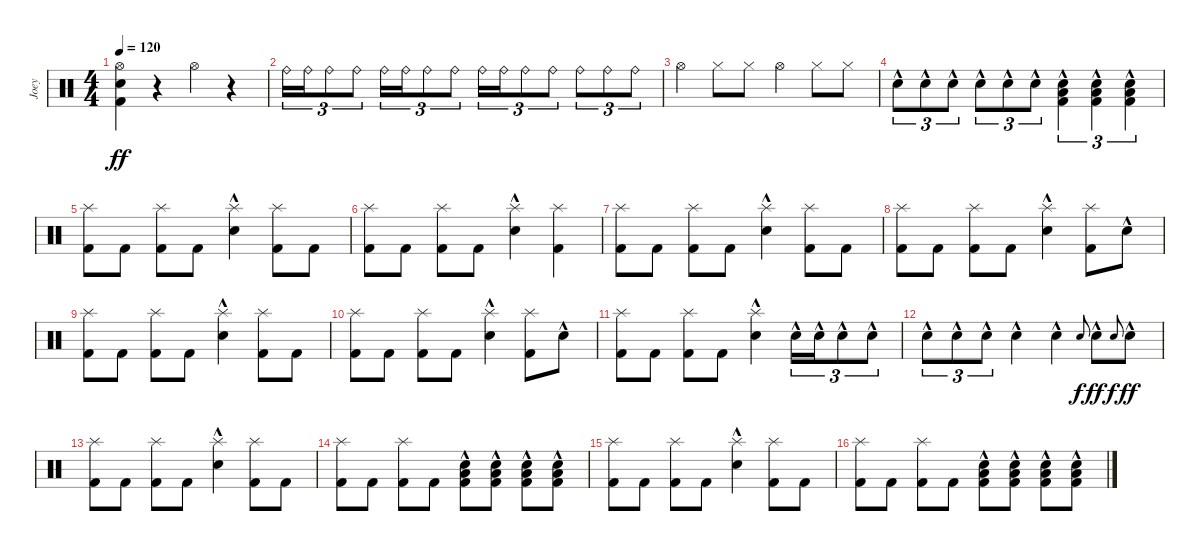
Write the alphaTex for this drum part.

\track ("Joey" "Joey") {instrument percussion}
\staff {score}
\articulation defaults
\ts (4 4)
\tempo 120
\clef neutral
\ks c
("Hi-Hat (open)" "Snare (hit) 2" "Kick (hit) 2").4{dy ff} r.4 "Hi-Hat (open)".4 r.4 |
"Ride (bell)".16{tu (3 2)} "Ride (bell)".16{tu (3 2)} "Ride (bell)".8{tu (3 2)} "Ride (bell)".8{tu (3 2)} "Ride (bell)".16{tu (3 2)} "Ride (bell)".16{tu (3 2)} "Ride (bell)".8{tu (3 2)} "Ride (bell)".8{tu (3 2)} "Ride (bell)".16{tu (3 2)} "Ride (bell)".16{tu (3 2)} "Ride (bell)".8{tu (3 2)} "Ride (bell)".8{tu (3 2)} "Ride (bell)".8{tu (3 2)} "Ride (bell)".8{tu (3 2)} "Ride (bell)".8{tu (3 2)} |
"Hi-Hat (open)".4 "Hi-Hat (closed)".8 "Hi-Hat (closed)".8 "Hi-Hat (open)".4 "Hi-Hat (closed)".8 "Hi-Hat (closed)".8 |
"Snare (hit) 2"{hac}.8{tu (3 2)} "Snare (hit) 2"{hac}.8{tu (3 2)} "Snare (hit) 2"{hac}.8{tu (3 2)} "Snare (hit) 2"{hac}.8{tu (3 2)} "Snare (hit) 2"{hac}.8{tu (3 2)} "Snare (hit) 2"{hac}.8{tu (3 2)} ("Low Floor Tom (hit)"{hac} "Snare (hit) 2"{hac} "Kick (hit) 2").4{tu (3 2)} ("Low Floor Tom (hit)"{hac} "Snare (hit) 2"{hac} "Kick (hit) 2").4{tu (3 2)} ("Low Floor Tom (hit)"{hac} "Snare (hit) 2"{hac} "Kick (hit) 2").4{tu (3 2)} |
("Splash (hit)" "Kick (hit) 2").8 "Kick (hit) 2".8 ("Splash (hit)" "Kick (hit) 2").8 "Kick (hit) 2".8 ("Splash (hit)" "Snare (hit) 2"{hac}).4 ("Splash (hit)" "Kick (hit) 2").8 "Kick (hit) 2".8 |
("Splash (hit)" "Kick (hit) 2").8 "Kick (hit) 2".8 ("Splash (hit)" "Kick (hit) 2").8 "Kick (hit) 2".8 ("Splash (hit)" "Snare (hit) 2"{hac}).4 ("Splash (hit)" "Kick (hit) 2").4 |
("Splash (hit)" "Kick (hit) 2").8 "Kick (hit) 2".8 ("Splash (hit)" "Kick (hit) 2").8 "Kick (hit) 2".8 ("Splash (hit)" "Snare (hit) 2"{hac}).4 ("Splash (hit)" "Kick (hit) 2").8 "Kick (hit) 2".8 |
("Splash (hit)" "Kick (hit) 2").8 "Kick (hit) 2".8 ("Splash (hit)" "Kick (hit) 2").8 "Kick (hit) 2".8 ("Splash (hit)" "Snare (hit) 2"{hac}).4 ("Splash (hit)" "Kick (hit) 2").8 "Snare (hit) 2"{hac}.8 |
("Splash (hit)" "Kick (hit) 2").8 "Kick (hit) 2".8 ("Splash (hit)" "Kick (hit) 2").8 "Kick (hit) 2".8 ("Splash (hit)" "Snare (hit) 2"{hac}).4 ("Splash (hit)" "Kick (hit) 2").8 "Kick (hit) 2".8 |
("Splash (hit)" "Kick (hit) 2").8 "Kick (hit) 2".8 ("Splash (hit)" "Kick (hit) 2").8 "Kick (hit) 2".8 ("Splash (hit)" "Snare (hit) 2"{hac}).4 ("Splash (hit)" "Kick (hit) 2").8 "Snare (hit) 2"{hac}.8 |
("Splash (hit)" "Kick (hit) 2").8 "Kick (hit) 2".8 ("Splash (hit)" "Kick (hit) 2").8 "Kick (hit) 2".8 ("Splash (hit)" "Snare (hit) 2"{hac}).4 "Snare (hit) 2"{hac}.16{tu (3 2)} "Snare (hit) 2"{hac}.16{tu (3 2)} "Snare (hit) 2"{hac}.8{tu (3 2)} "Snare (hit) 2"{hac}.8{tu (3 2)} |
"Snare (hit) 2"{hac}.8{tu (3 2)} "Snare (hit) 2"{hac}.8{tu (3 2)} "Snare (hit) 2"{hac}.8{tu (3 2)} "Snare (hit) 2"{hac}.4 "Snare (hit) 2"{hac}.4 "Snare (hit) 2".8{gr onbeat dy f} "Snare (hit) 2"{hac}.8{dy ff} "Snare (hit) 2".8{gr onbeat dy f} "Snare (hit) 2"{hac}.8{dy ff} |
("Splash (hit)" "Kick (hit) 2").8 "Kick (hit) 2".8 ("Splash (hit)" "Kick (hit) 2").8 "Kick (hit) 2".8 ("Splash (hit)" "Snare (hit) 2"{hac}).4 ("Splash (hit)" "Kick (hit) 2").8 "Kick (hit) 2".8 |
("Splash (hit)" "Kick (hit) 2").8 "Kick (hit) 2".8 ("Splash (hit)" "Kick (hit) 2").8 "Kick (hit) 2".8 ("Low Floor Tom (hit)"{hac} "Snare (hit) 2"{hac} "Kick (hit) 2").8 ("Low Floor Tom (hit)"{hac} "Snare (hit) 2"{hac} "Kick (hit) 2").8 ("Low Floor Tom (hit)"{hac} "Snare (hit) 2"{hac} "Kick (hit) 2").8 ("Low Floor Tom (hit)"{hac} "Snare (hit) 2"{hac} "Kick (hit) 2").8 |
("Splash (hit)" "Kick (hit) 2").8 "Kick (hit) 2".8 ("Splash (hit)" "Kick (hit) 2").8 "Kick (hit) 2".8 ("Splash (hit)" "Snare (hit) 2"{hac}).4 ("Splash (hit)" "Kick (hit) 2").8 "Kick (hit) 2".8 |
("Splash (hit)" "Kick (hit) 2").8 "Kick (hit) 2".8 ("Splash (hit)" "Kick (hit) 2").8 "Kick (hit) 2".8 ("Low Floor Tom (hit)"{hac} "Snare (hit) 2"{hac} "Kick (hit) 2").8 ("Low Floor Tom (hit)"{hac} "Snare (hit) 2"{hac} "Kick (hit) 2").8 ("Low Floor Tom (hit)"{hac} "Snare (hit) 2"{hac} "Kick (hit) 2").8 ("Low Floor Tom (hit)"{hac} "Snare (hit) 2"{hac} "Kick (hit) 2").8
